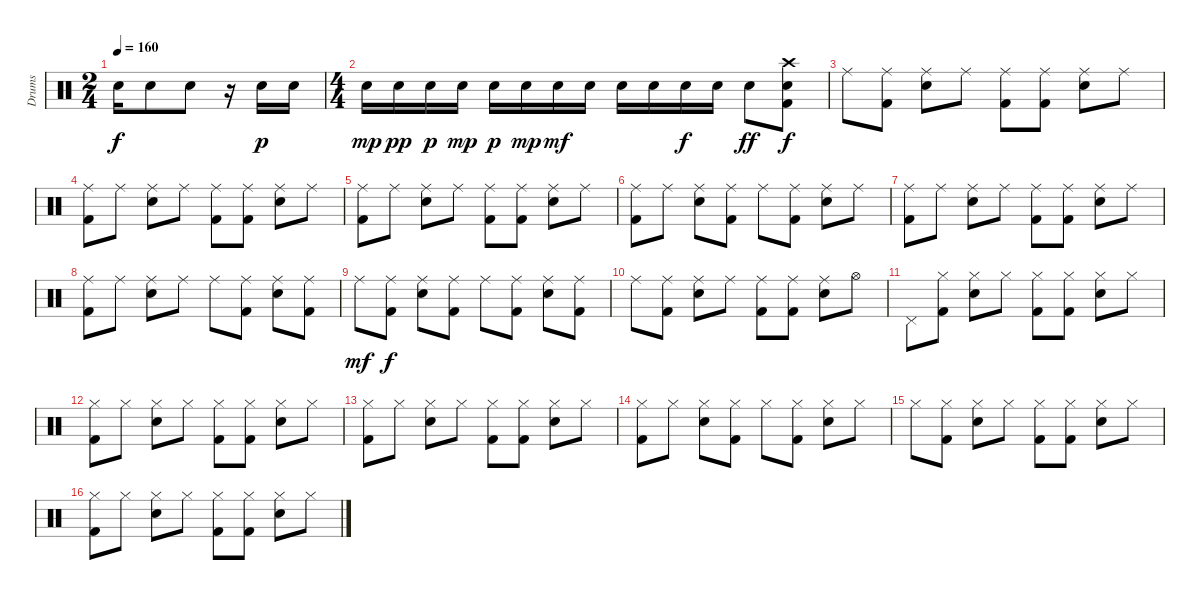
\track ("Drums" "Drums") {instrument percussion}
\staff {score}
\articulation defaults
\ts (2 4)
\tempo 160
\clef neutral
\ks c "Snare (hit) 2".16{dy f} "Snare (hit) 2".8 "Snare (hit) 2".8
r.16 "Snare (hit) 2".16{dy p} "Snare (hit) 2".16 |
\ts (4 4)
"Snare (hit) 2".16{dy mp} "Snare (hit) 2".16{dy pp} "Snare (hit) 2".16{dy p} "Snare (hit) 2".16{dy mp} "Snare (hit) 2".16{dy p} "Snare (hit) 2".16{dy mp} "Snare (hit) 2".16{dy mf} "Snare (hit) 2".16 "Snare (hit) 2".16 "Snare (hit) 2".16 "Snare (hit) 2".16{dy f} "Snare (hit) 2".16 "Snare (hit) 2".8{dy ff} ("Kick (hit) 2" "Snare (hit) 2" "Crash high (hit)").8{dy f} |
"Ride (middle)".8 ("Kick (hit) 2" "Ride (middle)").8 ("Snare (hit) 2" "Ride (middle)").8 "Ride (middle)".8 ("Kick (hit) 2" "Ride (middle)").8 ("Kick (hit) 2" "Ride (middle)").8 ("Snare (hit) 2" "Ride (middle)").8 "Ride (middle)".8 |
("Kick (hit) 2" "Ride (middle)").8 "Ride (middle)".8 ("Snare (hit) 2" "Ride (middle)").8 "Ride (middle)".8 ("Kick (hit) 2" "Ride (middle)").8 ("Kick (hit) 2" "Ride (middle)").8 ("Snare (hit) 2" "Ride (middle)").8 "Ride (middle)".8 |
("Kick (hit) 2" "Ride (middle)").8 "Ride (middle)".8 ("Snare (hit) 2" "Ride (middle)").8 "Ride (middle)".8 ("Kick (hit) 2" "Ride (middle)").8 ("Kick (hit) 2" "Ride (middle)").8 ("Snare (hit) 2" "Ride (middle)").8 "Ride (middle)".8 |
("Kick (hit) 2" "Ride (middle)").8 "Ride (middle)".8 ("Snare (hit) 2" "Ride (middle)").8 ("Kick (hit) 2" "Ride (middle)").8 "Ride (middle)".8 ("Kick (hit) 2" "Ride (middle)").8 ("Snare (hit) 2" "Ride (middle)").8 "Ride (middle)".8 |
("Kick (hit) 2" "Ride (middle)").8 "Ride (middle)".8 ("Snare (hit) 2" "Ride (middle)").8 "Ride (middle)".8 ("Kick (hit) 2" "Ride (middle)").8 ("Kick (hit) 2" "Ride (middle)").8 ("Snare (hit) 2" "Ride (middle)").8 "Ride (middle)".8 |
("Kick (hit) 2" "Ride (middle)").8 "Ride (middle)".8 ("Snare (hit) 2" "Ride (middle)").8 "Ride (middle)".8 "Ride (middle)".8 ("Kick (hit) 2" "Ride (middle)").8 ("Snare (hit) 2" "Ride (middle)").8 ("Kick (hit) 2" "Ride (middle)").8 |
"Ride (middle)".8{dy mf} ("Kick (hit) 2" "Ride (middle)").8{dy f} ("Snare (hit) 2" "Ride (middle)").8 ("Kick (hit) 2" "Ride (middle)").8 "Ride (middle)".8 ("Kick (hit) 2" "Ride (middle)").8 ("Snare (hit) 2" "Ride (middle)").8 ("Kick (hit) 2" "Ride (middle)").8 |
"Ride (middle)".8 ("Kick (hit) 2" "Ride (middle)").8 ("Snare (hit) 2" "Ride (middle)").8 "Ride (middle)".8 ("Kick (hit) 2" "Ride (middle)").8 ("Kick (hit) 2" "Ride (middle)").8 ("Snare (hit) 2" "Ride (middle)").8 "Hi-Hat (open)".8 |
"Pedal Hi-Hat (hit)".8 ("Kick (hit) 2" "Hi-Hat (closed)").8 ("Snare (hit) 2" "Hi-Hat (closed)").8 "Hi-Hat (closed)".8 ("Kick (hit) 2" "Hi-Hat (closed)").8 ("Kick (hit) 2" "Hi-Hat (closed)").8 ("Snare (hit) 2" "Hi-Hat (closed)").8 "Hi-Hat (closed)".8 |
("Kick (hit) 2" "Hi-Hat (closed)").8 "Hi-Hat (closed)".8 ("Snare (hit) 2" "Hi-Hat (closed)").8 "Hi-Hat (closed)".8 ("Kick (hit) 2" "Hi-Hat (closed)").8 ("Kick (hit) 2" "Hi-Hat (closed)").8 ("Snare (hit) 2" "Hi-Hat (closed)").8 "Hi-Hat (closed)".8 |
("Kick (hit) 2" "Hi-Hat (closed)").8 "Hi-Hat (closed)".8 ("Snare (hit) 2" "Hi-Hat (closed)").8 "Hi-Hat (closed)".8 ("Kick (hit) 2" "Hi-Hat (closed)").8 ("Kick (hit) 2" "Hi-Hat (closed)").8 ("Snare (hit) 2" "Hi-Hat (closed)").8 "Hi-Hat (closed)".8 |
("Kick (hit) 2" "Hi-Hat (closed)").8 "Hi-Hat (closed)".8 ("Snare (hit) 2" "Hi-Hat (closed)").8 ("Kick (hit) 2" "Hi-Hat (closed)").8 "Hi-Hat (closed)".8 ("Kick (hit) 2" "Hi-Hat (closed)").8 ("Snare (hit) 2" "Hi-Hat (closed)").8 "Hi-Hat (closed)".8 |
"Hi-Hat (closed)".8 ("Kick (hit) 2" "Hi-Hat (closed)").8 ("Snare (hit) 2" "Hi-Hat (closed)").8 "Hi-Hat (closed)".8 ("Kick (hit) 2" "Hi-Hat (closed)").8 ("Kick (hit) 2" "Hi-Hat (closed)").8 ("Snare (hit) 2" "Hi-Hat (closed)").8 "Hi-Hat (closed)".8 |
("Kick (hit) 2" "Hi-Hat (closed)").8 "Hi-Hat (closed)".8 ("Snare (hit) 2" "Hi-Hat (closed)").8 "Hi-Hat (closed)".8 ("Kick (hit) 2" "Hi-Hat (closed)").8 ("Kick (hit) 2" "Hi-Hat (closed)").8 ("Snare (hit) 2" "Hi-Hat (closed)").8 "Hi-Hat (closed)".8
